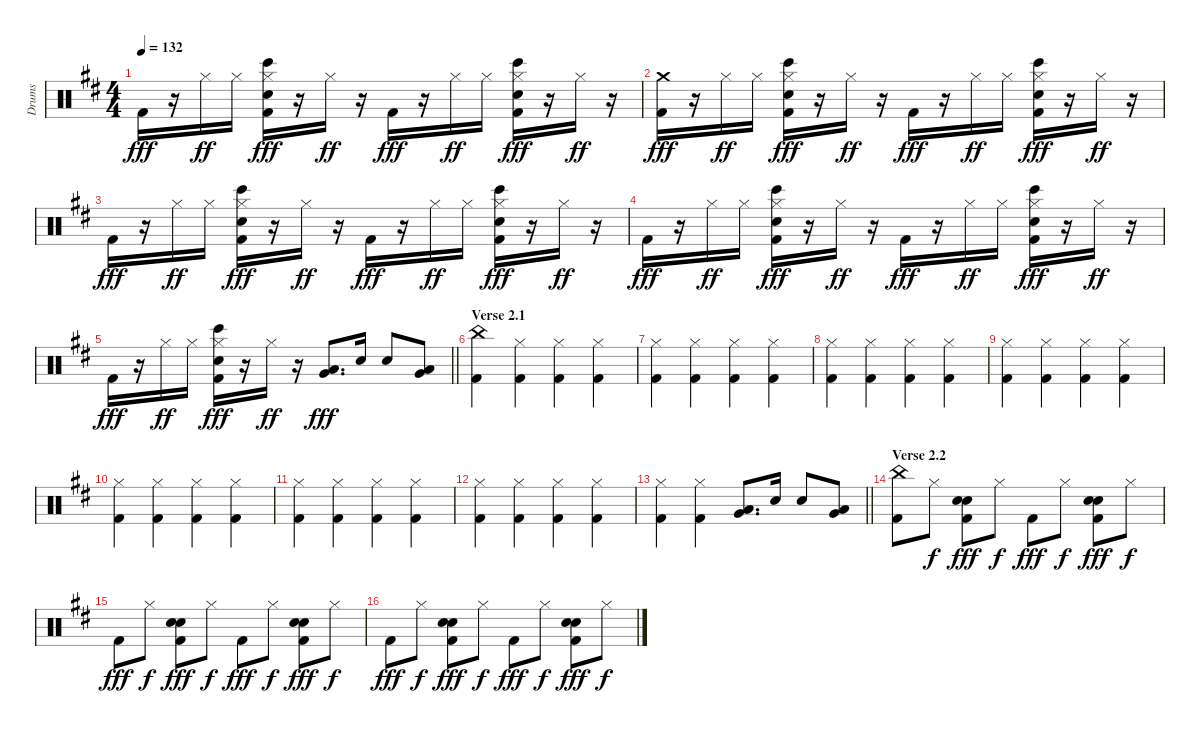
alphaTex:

\track ("Drums" "Drums") {instrument percussion}
\staff {score}
\articulation defaults
\ts (4 4)
\tempo 132
\clef neutral
\ks d "Kick (hit) 2".16{dy fff}
r.16 "Hi-Hat (closed)".16{dy ff} "Hi-Hat (closed)".16 ("Hi-Hat (closed)" "Electric Snare (hit)" "Bongo High (hit)" "Kick (hit) 2").16{dy fff} r.16 "Hi-Hat (closed)".16{dy ff} r.16 "Kick (hit) 2".16{dy fff} r.16 "Hi-Hat (closed)".16{dy ff} "Hi-Hat (closed)".16 ("Hi-Hat (closed)" "Electric Snare (hit)" "Bongo High (hit)" "Kick (hit) 2").16{dy fff} r.16 "Hi-Hat (closed)".16{dy ff} r.16 |
("Crash medium (hit)" "Kick (hit) 2").16{dy fff} r.16 "Hi-Hat (closed)".16{dy ff} "Hi-Hat (closed)".16 ("Hi-Hat (closed)" "Electric Snare (hit)" "Bongo High (hit)" "Kick (hit) 2").16{dy fff} r.16 "Hi-Hat (closed)".16{dy ff} r.16 "Kick (hit) 2".16{dy fff} r.16 "Hi-Hat (closed)".16{dy ff} "Hi-Hat (closed)".16 ("Hi-Hat (closed)" "Electric Snare (hit)" "Bongo High (hit)" "Kick (hit) 2").16{dy fff} r.16 "Hi-Hat (closed)".16{dy ff} r.16 |
"Kick (hit) 2".16{dy fff} r.16 "Hi-Hat (closed)".16{dy ff} "Hi-Hat (closed)".16 ("Hi-Hat (closed)" "Electric Snare (hit)" "Bongo High (hit)" "Kick (hit) 2").16{dy fff} r.16 "Hi-Hat (closed)".16{dy ff} r.16 "Kick (hit) 2".16{dy fff} r.16 "Hi-Hat (closed)".16{dy ff} "Hi-Hat (closed)".16 ("Hi-Hat (closed)" "Electric Snare (hit)" "Bongo High (hit)" "Kick (hit) 2").16{dy fff} r.16 "Hi-Hat (closed)".16{dy ff} r.16 |
"Kick (hit) 2".16{dy fff} r.16 "Hi-Hat (closed)".16{dy ff} "Hi-Hat (closed)".16 ("Hi-Hat (closed)" "Electric Snare (hit)" "Bongo High (hit)" "Kick (hit) 2").16{dy fff} r.16 "Hi-Hat (closed)".16{dy ff} r.16 "Kick (hit) 2".16{dy fff} r.16 "Hi-Hat (closed)".16{dy ff} "Hi-Hat (closed)".16 ("Hi-Hat (closed)" "Electric Snare (hit)" "Bongo High (hit)" "Kick (hit) 2").16{dy fff} r.16 "Hi-Hat (closed)".16{dy ff} r.16 |
\barLineRight lightlight "Kick (hit) 2".16{dy fff}
r.16 "Hi-Hat (closed)".16{dy ff} "Hi-Hat (closed)".16 ("Hi-Hat (closed)" "Electric Snare (hit)" "Bongo High (hit)" "Kick (hit) 2").16{dy fff} r.16 "Hi-Hat (closed)".16{dy ff} r.16 ("Very Low Tom (hit)" "Low Floor Tom (hit)").8{d dy fff} "Electric Snare (hit)".16 "Electric Snare (hit)".8 ("Very Low Tom (hit)" "Low Floor Tom (hit)").8 |
\section ("" "Verse 2.1")
("China (hit)" "Kick (hit) 2").4 ("Hi-Hat (closed)" "Kick (hit) 2").4 ("Hi-Hat (closed)" "Kick (hit) 2").4 ("Hi-Hat (closed)" "Kick (hit) 2").4 |
("Hi-Hat (closed)" "Kick (hit) 2").4 ("Hi-Hat (closed)" "Kick (hit) 2").4 ("Hi-Hat (closed)" "Kick (hit) 2").4 ("Hi-Hat (closed)" "Kick (hit) 2").4 |
("Hi-Hat (closed)" "Kick (hit) 2").4 ("Hi-Hat (closed)" "Kick (hit) 2").4 ("Hi-Hat (closed)" "Kick (hit) 2").4 ("Hi-Hat (closed)" "Kick (hit) 2").4 |
("Hi-Hat (closed)" "Kick (hit) 2").4 ("Hi-Hat (closed)" "Kick (hit) 2").4 ("Hi-Hat (closed)" "Kick (hit) 2").4 ("Hi-Hat (closed)" "Kick (hit) 2").4 |
("Hi-Hat (closed)" "Kick (hit) 2").4 ("Hi-Hat (closed)" "Kick (hit) 2").4 ("Hi-Hat (closed)" "Kick (hit) 2").4 ("Hi-Hat (closed)" "Kick (hit) 2").4 |
("Hi-Hat (closed)" "Kick (hit) 2").4 ("Hi-Hat (closed)" "Kick (hit) 2").4 ("Hi-Hat (closed)" "Kick (hit) 2").4 ("Hi-Hat (closed)" "Kick (hit) 2").4 |
("Hi-Hat (closed)" "Kick (hit) 2").4 ("Hi-Hat (closed)" "Kick (hit) 2").4 ("Hi-Hat (closed)" "Kick (hit) 2").4 ("Hi-Hat (closed)" "Kick (hit) 2").4 |
\barLineRight lightlight
("Hi-Hat (closed)" "Kick (hit) 2").4 ("Hi-Hat (closed)" "Kick (hit) 2").4 ("Very Low Tom (hit)" "Low Floor Tom (hit)").8{d} "Electric Snare (hit)".16 "Electric Snare (hit)".8 ("Very Low Tom (hit)" "Low Floor Tom (hit)").8 |
\section ("" "Verse 2.2")
("China (hit)" "Kick (hit) 2").8 "Hi-Hat (closed)".8{dy f} ("Snare (hit) 2" "Electric Snare (hit)" "Kick (hit) 2").8{dy fff} "Hi-Hat (closed)".8{dy f} "Kick (hit) 2".8{dy fff} "Hi-Hat (closed)".8{dy f} ("Snare (hit) 2" "Electric Snare (hit)" "Kick (hit) 2").8{dy fff} "Hi-Hat (closed)".8{dy f} |
"Kick (hit) 2".8{dy fff} "Hi-Hat (closed)".8{dy f} ("Snare (hit) 2" "Electric Snare (hit)" "Kick (hit) 2").8{dy fff} "Hi-Hat (closed)".8{dy f} "Kick (hit) 2".8{dy fff} "Hi-Hat (closed)".8{dy f} ("Snare (hit) 2" "Electric Snare (hit)" "Kick (hit) 2").8{dy fff} "Hi-Hat (closed)".8{dy f} |
"Kick (hit) 2".8{dy fff} "Hi-Hat (closed)".8{dy f} ("Snare (hit) 2" "Electric Snare (hit)" "Kick (hit) 2").8{dy fff} "Hi-Hat (closed)".8{dy f} "Kick (hit) 2".8{dy fff} "Hi-Hat (closed)".8{dy f} ("Snare (hit) 2" "Electric Snare (hit)" "Kick (hit) 2").8{dy fff} "Hi-Hat (closed)".8{dy f}
